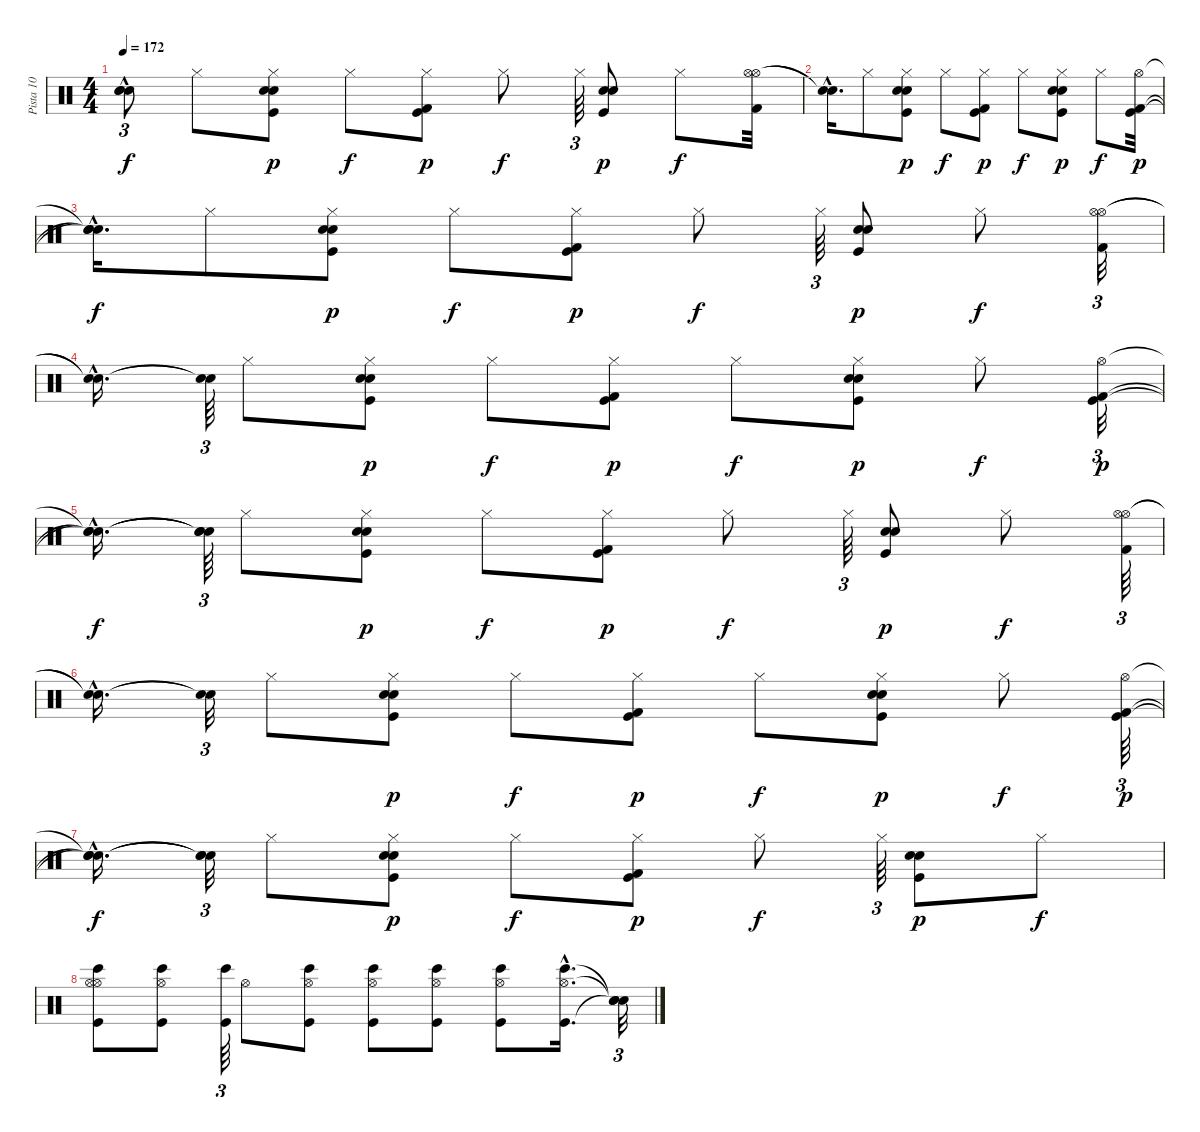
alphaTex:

\track ("Pista 10" "Pista 10") {instrument percussion}
\staff {score}
\articulation defaults
\ts (4 4)
\tempo 172
\clef neutral
\ks c
("Snare (hit)"{t} "Snare (hit)"{t} "Snare (hit)"{hac t}).8{tu (3 2) dy f} "Hi-Hat (closed)".8 ("Hi-Hat (closed)" "Snare (hit) 2" "Electric Snare (hit)" "Kick (hit)").8{dy p} "Hi-Hat (closed)".8{dy f} ("Hi-Hat (closed)" "Kick (hit) 2" "Kick (hit)").8{dy p} "Hi-Hat (closed)".8{dy f} "Hi-Hat (closed)".64{tu (3 2)} ("Snare (hit) 2" "Electric Snare (hit)" "Kick (hit)").8{dy p} "Hi-Hat (closed)".8{dy f} ("Hi-Hat (open)" "Hi-Hat (open)" "Kick (hit) 2").32 |
("Snare (hit)"{hac t} "Snare (hit)"{hac t}).16{d} "Hi-Hat (closed)".8 ("Hi-Hat (closed)" "Electric Snare (hit)" "Snare (hit) 2" "Kick (hit)").8{dy p} "Hi-Hat (closed)".8{dy f} ("Kick (hit) 2" "Kick (hit)" "Hi-Hat (closed)").8{dy p} "Hi-Hat (closed)".8{dy f} ("Snare (hit) 2" "Electric Snare (hit)" "Kick (hit)" "Hi-Hat (closed)").8{dy p} "Hi-Hat (closed)".8{dy f} ("Hi-Hat (open)" "Kick (hit) 2" "Kick (hit)").32{dy p} |
("Snare (hit)"{hac t} "Snare (hit)"{hac t} "Snare (hit)"{hac t}).16{d dy f} "Hi-Hat (closed)".8 ("Hi-Hat (closed)" "Snare (hit) 2" "Electric Snare (hit)" "Kick (hit)").8{dy p} "Hi-Hat (closed)".8{dy f} ("Hi-Hat (closed)" "Kick (hit) 2" "Kick (hit)").8{dy p} "Hi-Hat (closed)".8{dy f} "Hi-Hat (closed)".64{tu (3 2)} ("Snare (hit) 2" "Electric Snare (hit)" "Kick (hit)").8{dy p} "Hi-Hat (closed)".8{dy f} ("Hi-Hat (open)" "Hi-Hat (open)" "Kick (hit) 2").32{tu (3 2)} |
("Snare (hit)"{hac t} "Snare (hit)"{hac t}).16{d} ("Snare (hit)"{t} "Snare (hit)"{t}).64{tu (3 2)} "Hi-Hat (closed)".8 ("Hi-Hat (closed)" "Electric Snare (hit)" "Snare (hit) 2" "Kick (hit)").8{dy p} "Hi-Hat (closed)".8{dy f} ("Kick (hit) 2" "Kick (hit)" "Hi-Hat (closed)").8{dy p} "Hi-Hat (closed)".8{dy f} ("Snare (hit) 2" "Electric Snare (hit)" "Kick (hit)" "Hi-Hat (closed)").8{dy p} "Hi-Hat (closed)".8{dy f} ("Hi-Hat (open)" "Kick (hit) 2" "Kick (hit)").32{tu (3 2) dy p} |
("Snare (hit)"{hac t} "Snare (hit)"{hac t} "Snare (hit)"{hac t}).16{d dy f} ("Snare (hit)"{t} "Snare (hit)"{t} "Snare (hit)"{t}).64{tu (3 2)} "Hi-Hat (closed)".8 ("Hi-Hat (closed)" "Snare (hit) 2" "Electric Snare (hit)" "Kick (hit)").8{dy p} "Hi-Hat (closed)".8{dy f} ("Hi-Hat (closed)" "Kick (hit) 2" "Kick (hit)").8{dy p} "Hi-Hat (closed)".8{dy f} "Hi-Hat (closed)".64{tu (3 2)} ("Snare (hit) 2" "Electric Snare (hit)" "Kick (hit)").8{dy p} "Hi-Hat (closed)".8{dy f} ("Hi-Hat (open)" "Hi-Hat (open)" "Kick (hit) 2").64{tu (3 2)} |
("Snare (hit)"{hac t} "Snare (hit)"{hac t}).16{d} ("Snare (hit)"{t} "Snare (hit)"{t}).32{tu (3 2)} "Hi-Hat (closed)".8 ("Hi-Hat (closed)" "Electric Snare (hit)" "Snare (hit) 2" "Kick (hit)").8{dy p} "Hi-Hat (closed)".8{dy f} ("Kick (hit) 2" "Kick (hit)" "Hi-Hat (closed)").8{dy p} "Hi-Hat (closed)".8{dy f} ("Snare (hit) 2" "Electric Snare (hit)" "Kick (hit)" "Hi-Hat (closed)").8{dy p} "Hi-Hat (closed)".8{dy f} ("Hi-Hat (open)" "Kick (hit) 2" "Kick (hit)").64{tu (3 2) dy p} |
("Snare (hit)"{hac t} "Snare (hit)"{hac t} "Snare (hit)"{hac t}).16{d dy f} ("Snare (hit)"{t} "Snare (hit)"{t} "Snare (hit)"{t}).32{tu (3 2)} "Hi-Hat (closed)".8 ("Hi-Hat (closed)" "Snare (hit) 2" "Electric Snare (hit)" "Kick (hit)").8{dy p} "Hi-Hat (closed)".8{dy f} ("Hi-Hat (closed)" "Kick (hit) 2" "Kick (hit)").8{dy p} "Hi-Hat (closed)".8{dy f} "Hi-Hat (closed)".64{tu (3 2)} ("Snare (hit) 2" "Electric Snare (hit)" "Kick (hit)").8{dy p} "Hi-Hat (closed)".8{dy f} |
("Hi-Hat (open)" "Kick (hit)" "Bongo High (hit)" "Hi-Hat (open)").8 ("Kick (hit)" "Bongo High (hit)" "Hi-Hat (open)").8 ("Bongo High (hit)" "Kick (hit)").64{tu (3 2)} "Hi-Hat (open)".8 ("Bongo High (hit)" "Kick (hit)" "Hi-Hat (open)").8 ("Bongo High (hit)" "Kick (hit)" "Hi-Hat (open)").8 ("Bongo High (hit)" "Kick (hit)" "Hi-Hat (open)").8 ("Bongo High (hit)" "Kick (hit)" "Hi-Hat (open)").8 ("Bongo High (hit)"{hac} "Kick (hit)"{hac} "Hi-Hat (open)"{hac}).16{d} ("Snare (hit)"{t} "Snare (hit)"{t} "Snare (hit)"{t}).32{tu (3 2)}
